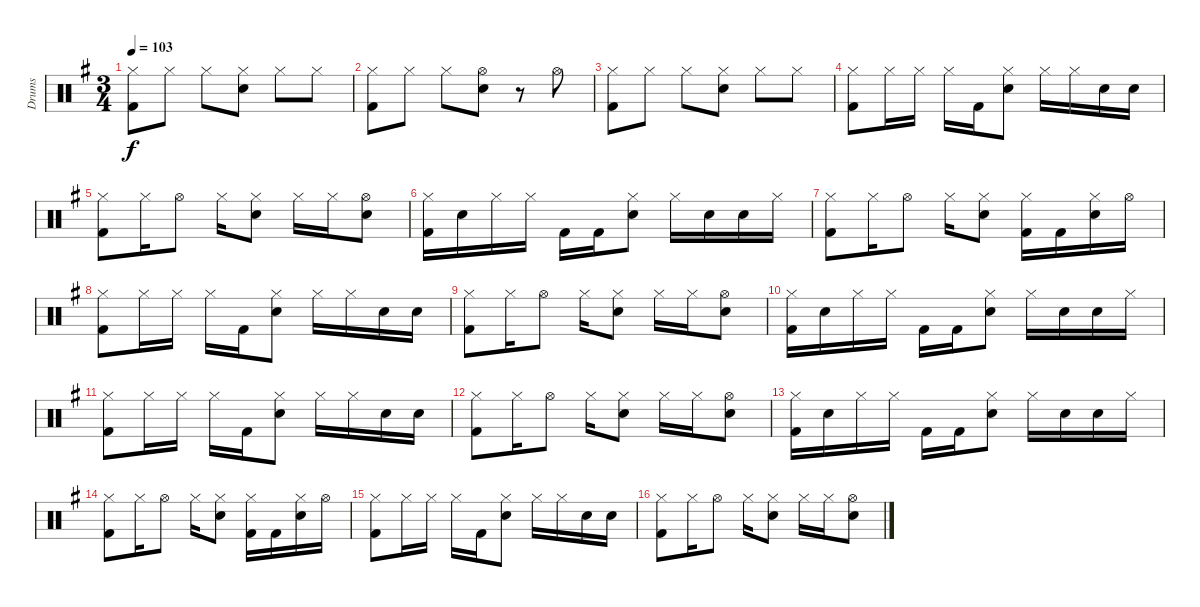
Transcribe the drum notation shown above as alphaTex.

\track ("Drums" "Drums") {instrument percussion}
\staff {score}
\articulation defaults
\ts (3 4)
\tempo 103
\clef neutral
\ks eminor
("Hi-Hat (closed)" "Kick (hit) 2").8{dy f} "Hi-Hat (closed)".8 "Hi-Hat (closed)".8 ("Hi-Hat (closed)" "Electric Snare (hit)").8 "Hi-Hat (closed)".8 "Hi-Hat (closed)".8 |
("Hi-Hat (closed)" "Kick (hit) 2").8 "Hi-Hat (closed)".8 "Hi-Hat (closed)".8 ("Hi-Hat (open)" "Electric Snare (hit)").8 r.8 "Hi-Hat (open)".8 |
("Hi-Hat (closed)" "Kick (hit) 2").8 "Hi-Hat (closed)".8 "Hi-Hat (closed)".8 ("Hi-Hat (closed)" "Electric Snare (hit)").8 "Hi-Hat (closed)".8 "Hi-Hat (closed)".8 |
("Hi-Hat (closed)" "Kick (hit) 2").8 "Hi-Hat (closed)".16 "Hi-Hat (closed)".16 "Hi-Hat (closed)".16 "Kick (hit) 2".16 ("Hi-Hat (closed)" "Electric Snare (hit)").8 "Hi-Hat (closed)".16 "Hi-Hat (closed)".16 "Electric Snare (hit)".16 "Electric Snare (hit)".16 |
("Hi-Hat (closed)" "Kick (hit) 2").8 "Hi-Hat (closed)".16 "Hi-Hat (open)".8 "Hi-Hat (closed)".16 ("Hi-Hat (closed)" "Electric Snare (hit)").8 "Hi-Hat (closed)".16 "Hi-Hat (closed)".16 ("Hi-Hat (open)" "Electric Snare (hit)").8 |
("Hi-Hat (closed)" "Kick (hit) 2").16 "Electric Snare (hit)".16 "Hi-Hat (closed)".16 "Hi-Hat (closed)".16 "Kick (hit) 2".16 "Kick (hit) 2".16 ("Hi-Hat (closed)" "Electric Snare (hit)").8 "Hi-Hat (closed)".16 "Electric Snare (hit)".16 "Electric Snare (hit)".16 "Hi-Hat (closed)".16 |
("Hi-Hat (closed)" "Kick (hit) 2").8 "Hi-Hat (closed)".16 "Hi-Hat (open)".8 "Hi-Hat (closed)".16 ("Hi-Hat (closed)" "Electric Snare (hit)").8 ("Hi-Hat (closed)" "Kick (hit) 2").16 "Kick (hit) 2".16 ("Hi-Hat (closed)" "Electric Snare (hit)").16 "Hi-Hat (open)".16 |
("Hi-Hat (closed)" "Kick (hit) 2").8 "Hi-Hat (closed)".16 "Hi-Hat (closed)".16 "Hi-Hat (closed)".16 "Kick (hit) 2".16 ("Hi-Hat (closed)" "Electric Snare (hit)").8 "Hi-Hat (closed)".16 "Hi-Hat (closed)".16 "Electric Snare (hit)".16 "Electric Snare (hit)".16 |
("Hi-Hat (closed)" "Kick (hit) 2").8 "Hi-Hat (closed)".16 "Hi-Hat (open)".8 "Hi-Hat (closed)".16 ("Hi-Hat (closed)" "Electric Snare (hit)").8 "Hi-Hat (closed)".16 "Hi-Hat (closed)".16 ("Hi-Hat (open)" "Electric Snare (hit)").8 |
("Hi-Hat (closed)" "Kick (hit) 2").16 "Electric Snare (hit)".16 "Hi-Hat (closed)".16 "Hi-Hat (closed)".16 "Kick (hit) 2".16 "Kick (hit) 2".16 ("Hi-Hat (closed)" "Electric Snare (hit)").8 "Hi-Hat (closed)".16 "Electric Snare (hit)".16 "Electric Snare (hit)".16 "Hi-Hat (closed)".16 |
("Hi-Hat (closed)" "Kick (hit) 2").8 "Hi-Hat (closed)".16 "Hi-Hat (closed)".16 "Hi-Hat (closed)".16 "Kick (hit) 2".16 ("Hi-Hat (closed)" "Electric Snare (hit)").8 "Hi-Hat (closed)".16 "Hi-Hat (closed)".16 "Electric Snare (hit)".16 "Electric Snare (hit)".16 |
("Hi-Hat (closed)" "Kick (hit) 2").8 "Hi-Hat (closed)".16 "Hi-Hat (open)".8 "Hi-Hat (closed)".16 ("Hi-Hat (closed)" "Electric Snare (hit)").8 "Hi-Hat (closed)".16 "Hi-Hat (closed)".16 ("Hi-Hat (open)" "Electric Snare (hit)").8 |
("Hi-Hat (closed)" "Kick (hit) 2").16 "Electric Snare (hit)".16 "Hi-Hat (closed)".16 "Hi-Hat (closed)".16 "Kick (hit) 2".16 "Kick (hit) 2".16 ("Hi-Hat (closed)" "Electric Snare (hit)").8 "Hi-Hat (closed)".16 "Electric Snare (hit)".16 "Electric Snare (hit)".16 "Hi-Hat (closed)".16 |
("Hi-Hat (closed)" "Kick (hit) 2").8 "Hi-Hat (closed)".16 "Hi-Hat (open)".8 "Hi-Hat (closed)".16 ("Hi-Hat (closed)" "Electric Snare (hit)").8 ("Hi-Hat (closed)" "Kick (hit) 2").16 "Kick (hit) 2".16 ("Hi-Hat (closed)" "Electric Snare (hit)").16 "Hi-Hat (open)".16 |
("Hi-Hat (closed)" "Kick (hit) 2").8 "Hi-Hat (closed)".16 "Hi-Hat (closed)".16 "Hi-Hat (closed)".16 "Kick (hit) 2".16 ("Hi-Hat (closed)" "Electric Snare (hit)").8 "Hi-Hat (closed)".16 "Hi-Hat (closed)".16 "Electric Snare (hit)".16 "Electric Snare (hit)".16 |
("Hi-Hat (closed)" "Kick (hit) 2").8 "Hi-Hat (closed)".16 "Hi-Hat (open)".8 "Hi-Hat (closed)".16 ("Hi-Hat (closed)" "Electric Snare (hit)").8 "Hi-Hat (closed)".16 "Hi-Hat (closed)".16 ("Hi-Hat (open)" "Electric Snare (hit)").8
